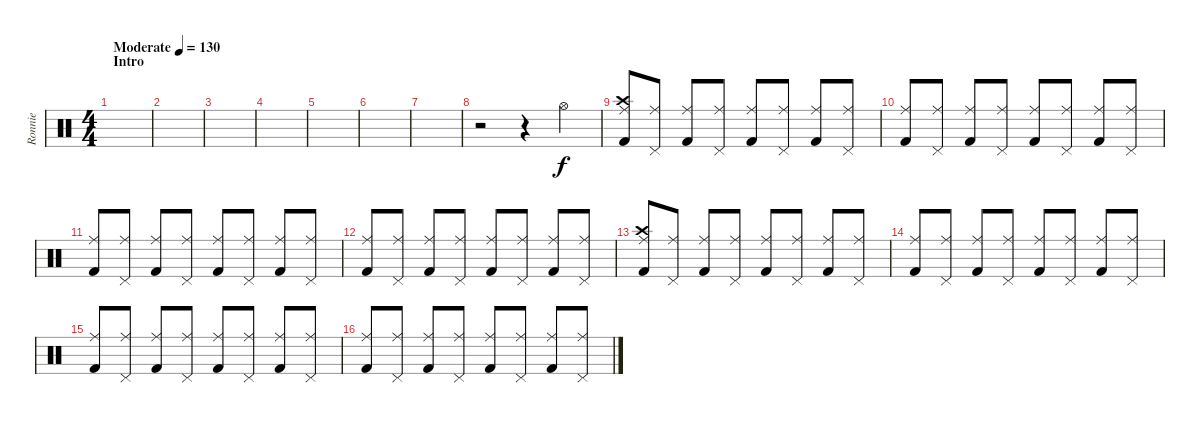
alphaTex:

\track ("Ronnie" "Ronnie") {instrument percussion}
\staff {score}
\articulation defaults
\ts (4 4)
\section ("" "Intro")
\tempo (130 "Moderate")
\clef neutral
\ks c
|
|
|
|
|
|
|
r.2 r.4 "Hi-Hat (open)".4 |
("Ride (middle)" "Crash high (hit)" "Kick (hit) 2").8 ("Ride (middle)" "Pedal Hi-Hat (hit)").8 ("Ride (middle)" "Kick (hit) 2").8 ("Ride (middle)" "Pedal Hi-Hat (hit)").8 ("Ride (middle)" "Kick (hit) 2").8 ("Ride (middle)" "Pedal Hi-Hat (hit)").8 ("Ride (middle)" "Kick (hit) 2").8 ("Ride (middle)" "Pedal Hi-Hat (hit)").8 |
("Ride (middle)" "Kick (hit) 2").8 ("Ride (middle)" "Pedal Hi-Hat (hit)").8 ("Ride (middle)" "Kick (hit) 2").8 ("Ride (middle)" "Pedal Hi-Hat (hit)").8 ("Ride (middle)" "Kick (hit) 2").8 ("Ride (middle)" "Pedal Hi-Hat (hit)").8 ("Ride (middle)" "Kick (hit) 2").8 ("Ride (middle)" "Pedal Hi-Hat (hit)").8 |
("Ride (middle)" "Kick (hit) 2").8 ("Ride (middle)" "Pedal Hi-Hat (hit)").8 ("Ride (middle)" "Kick (hit) 2").8 ("Ride (middle)" "Pedal Hi-Hat (hit)").8 ("Ride (middle)" "Kick (hit) 2").8 ("Ride (middle)" "Pedal Hi-Hat (hit)").8 ("Ride (middle)" "Kick (hit) 2").8 ("Ride (middle)" "Pedal Hi-Hat (hit)").8 |
("Ride (middle)" "Kick (hit) 2").8 ("Ride (middle)" "Pedal Hi-Hat (hit)").8 ("Ride (middle)" "Kick (hit) 2").8 ("Ride (middle)" "Pedal Hi-Hat (hit)").8 ("Ride (middle)" "Kick (hit) 2").8 ("Ride (middle)" "Pedal Hi-Hat (hit)").8 ("Ride (middle)" "Kick (hit) 2").8 ("Ride (middle)" "Pedal Hi-Hat (hit)").8 |
("Ride (middle)" "Crash high (hit)" "Kick (hit) 2").8 ("Ride (middle)" "Pedal Hi-Hat (hit)").8 ("Ride (middle)" "Kick (hit) 2").8 ("Ride (middle)" "Pedal Hi-Hat (hit)").8 ("Ride (middle)" "Kick (hit) 2").8 ("Ride (middle)" "Pedal Hi-Hat (hit)").8 ("Ride (middle)" "Kick (hit) 2").8 ("Ride (middle)" "Pedal Hi-Hat (hit)").8 |
("Ride (middle)" "Kick (hit) 2").8 ("Ride (middle)" "Pedal Hi-Hat (hit)").8 ("Ride (middle)" "Kick (hit) 2").8 ("Ride (middle)" "Pedal Hi-Hat (hit)").8 ("Ride (middle)" "Kick (hit) 2").8 ("Ride (middle)" "Pedal Hi-Hat (hit)").8 ("Ride (middle)" "Kick (hit) 2").8 ("Ride (middle)" "Pedal Hi-Hat (hit)").8 |
("Ride (middle)" "Kick (hit) 2").8 ("Ride (middle)" "Pedal Hi-Hat (hit)").8 ("Ride (middle)" "Kick (hit) 2").8 ("Ride (middle)" "Pedal Hi-Hat (hit)").8 ("Ride (middle)" "Kick (hit) 2").8 ("Ride (middle)" "Pedal Hi-Hat (hit)").8 ("Ride (middle)" "Kick (hit) 2").8 ("Ride (middle)" "Pedal Hi-Hat (hit)").8 |
("Ride (middle)" "Kick (hit) 2").8 ("Ride (middle)" "Pedal Hi-Hat (hit)").8 ("Ride (middle)" "Kick (hit) 2").8 ("Ride (middle)" "Pedal Hi-Hat (hit)").8 ("Ride (middle)" "Kick (hit) 2").8 ("Ride (middle)" "Pedal Hi-Hat (hit)").8 ("Ride (middle)" "Kick (hit) 2").8 ("Ride (middle)" "Pedal Hi-Hat (hit)").8
